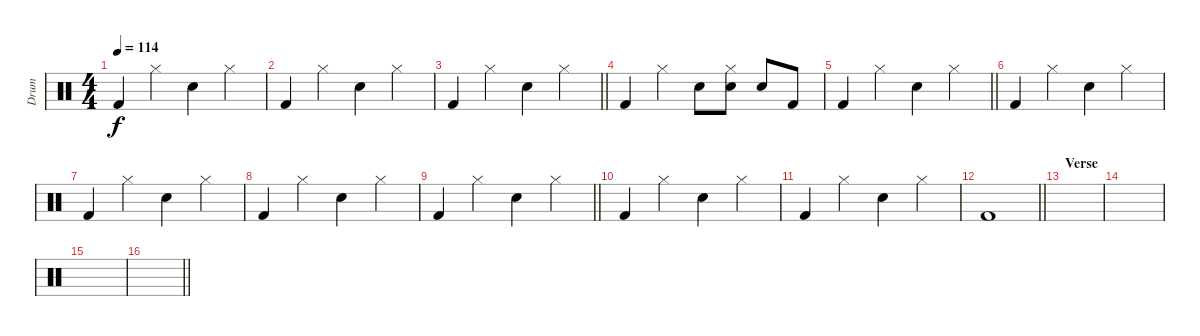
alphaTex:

\track ("Drum" "Drum") {instrument percussion}
\staff {score}
\articulation defaults
\ts (4 4)
\tempo 114
\clef neutral
\ks c "Kick (hit) 2".4{dy f} "Hi-Hat (closed)".4 "Snare (hit) 2".4 "Hi-Hat (closed)".4
|
"Kick (hit) 2".4 "Hi-Hat (closed)".4 "Snare (hit) 2".4 "Hi-Hat (closed)".4 |
\barLineRight lightlight "Kick (hit) 2".4 "Hi-Hat (closed)".4 "Snare (hit) 2".4 "Hi-Hat (closed)".4
|
"Kick (hit) 2".4 "Hi-Hat (closed)".4 "Snare (hit) 2".8 ("Hi-Hat (closed)" "Snare (hit) 2").8 "Snare (hit) 2".8 "Kick (hit) 2".8 |
\barLineRight lightlight "Kick (hit) 2".4 "Hi-Hat (closed)".4 "Snare (hit) 2".4 "Hi-Hat (closed)".4
|
"Kick (hit) 2".4 "Hi-Hat (closed)".4 "Snare (hit) 2".4 "Hi-Hat (closed)".4 |
"Kick (hit) 2".4 "Hi-Hat (closed)".4 "Snare (hit) 2".4 "Hi-Hat (closed)".4 |
"Kick (hit) 2".4 "Hi-Hat (closed)".4 "Snare (hit) 2".4 "Hi-Hat (closed)".4 |
\barLineRight lightlight "Kick (hit) 2".4 "Hi-Hat (closed)".4 "Snare (hit) 2".4 "Hi-Hat (closed)".4
|
"Kick (hit) 2".4 "Hi-Hat (closed)".4 "Snare (hit) 2".4 "Hi-Hat (closed)".4 |
"Kick (hit) 2".4 "Hi-Hat (closed)".4 "Snare (hit) 2".4 "Hi-Hat (closed)".4 |
\barLineRight lightlight "Kick (hit) 2".1
|
\section ("" "Verse")
|
|
|
\barLineRight lightlight
